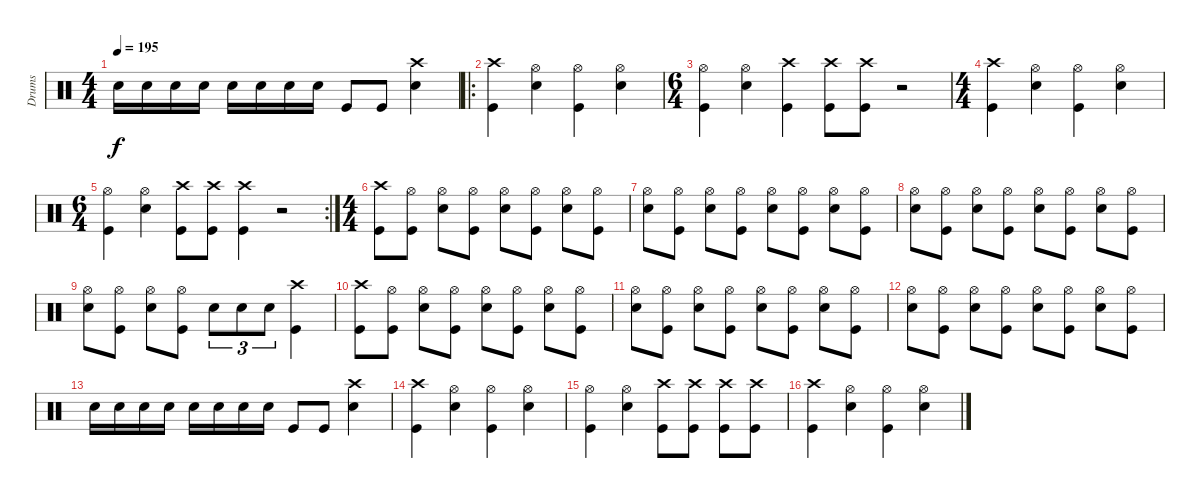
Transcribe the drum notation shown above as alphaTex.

\track ("Drums" "Drums") {instrument percussion}
\staff {score}
\articulation defaults
\ts (4 4)
\tempo 195
\clef neutral
\ks c "Snare (hit) 2".16{dy f} "Snare (hit) 2".16 "Snare (hit) 2".16 "Snare (hit) 2".16 "Snare (hit) 2".16 "Snare (hit) 2".16 "Snare (hit) 2".16 "Snare (hit) 2".16 "Kick (hit)".8 "Kick (hit)".8
("Crash high (hit)" "Snare (hit) 2").4 |
\ro
("Crash high (hit)" "Kick (hit)").4 ("Hi-Hat (open)" "Snare (hit) 2").4 ("Hi-Hat (open)" "Kick (hit)").4 ("Hi-Hat (open)" "Snare (hit) 2").4 |
\ts (6 4)
("Hi-Hat (open)" "Kick (hit)").4 ("Hi-Hat (open)" "Snare (hit) 2").4 ("Crash high (hit)" "Kick (hit)").4 ("Crash high (hit)" "Kick (hit)").8 ("Crash high (hit)" "Kick (hit)").8 r.2 |
\ts (4 4)
("Crash high (hit)" "Kick (hit)").4 ("Hi-Hat (open)" "Snare (hit) 2").4 ("Hi-Hat (open)" "Kick (hit)").4 ("Hi-Hat (open)" "Snare (hit) 2").4 |
\rc 2
\ts (6 4)
("Hi-Hat (open)" "Kick (hit)").4 ("Hi-Hat (open)" "Snare (hit) 2").4 ("Crash high (hit)" "Kick (hit)").8 ("Crash high (hit)" "Kick (hit)").8 ("Crash high (hit)" "Kick (hit)").4 r.2 |
\ts (4 4)
("Crash high (hit)" "Kick (hit)").8 ("Hi-Hat (open)" "Kick (hit)").8 ("Hi-Hat (open)" "Snare (hit) 2").8 ("Hi-Hat (open)" "Kick (hit)").8 ("Hi-Hat (open)" "Snare (hit) 2").8 ("Hi-Hat (open)" "Kick (hit)").8 ("Hi-Hat (open)" "Snare (hit) 2").8 ("Hi-Hat (open)" "Kick (hit)").8 |
("Hi-Hat (open)" "Snare (hit) 2").8 ("Hi-Hat (open)" "Kick (hit)").8 ("Hi-Hat (open)" "Snare (hit) 2").8 ("Hi-Hat (open)" "Kick (hit)").8 ("Hi-Hat (open)" "Snare (hit) 2").8 ("Hi-Hat (open)" "Kick (hit)").8 ("Hi-Hat (open)" "Snare (hit) 2").8 ("Hi-Hat (open)" "Kick (hit)").8 |
("Hi-Hat (open)" "Snare (hit) 2").8 ("Hi-Hat (open)" "Kick (hit)").8 ("Hi-Hat (open)" "Snare (hit) 2").8 ("Hi-Hat (open)" "Kick (hit)").8 ("Hi-Hat (open)" "Snare (hit) 2").8 ("Hi-Hat (open)" "Kick (hit)").8 ("Hi-Hat (open)" "Snare (hit) 2").8 ("Hi-Hat (open)" "Kick (hit)").8 |
("Hi-Hat (open)" "Snare (hit) 2").8 ("Hi-Hat (open)" "Kick (hit)").8 ("Hi-Hat (open)" "Snare (hit) 2").8 ("Hi-Hat (open)" "Kick (hit)").8 "Snare (hit) 2".8{tu (3 2)} "Snare (hit) 2".8{tu (3 2)} "Snare (hit) 2".8{tu (3 2)} ("Crash high (hit)" "Kick (hit)").4 |
("Crash high (hit)" "Kick (hit)").8 ("Hi-Hat (open)" "Kick (hit)").8 ("Hi-Hat (open)" "Snare (hit) 2").8 ("Hi-Hat (open)" "Kick (hit)").8 ("Hi-Hat (open)" "Snare (hit) 2").8 ("Hi-Hat (open)" "Kick (hit)").8 ("Hi-Hat (open)" "Snare (hit) 2").8 ("Hi-Hat (open)" "Kick (hit)").8 |
("Hi-Hat (open)" "Snare (hit) 2").8 ("Hi-Hat (open)" "Kick (hit)").8 ("Hi-Hat (open)" "Snare (hit) 2").8 ("Hi-Hat (open)" "Kick (hit)").8 ("Hi-Hat (open)" "Snare (hit) 2").8 ("Hi-Hat (open)" "Kick (hit)").8 ("Hi-Hat (open)" "Snare (hit) 2").8 ("Hi-Hat (open)" "Kick (hit)").8 |
("Hi-Hat (open)" "Snare (hit) 2").8 ("Hi-Hat (open)" "Kick (hit)").8 ("Hi-Hat (open)" "Snare (hit) 2").8 ("Hi-Hat (open)" "Kick (hit)").8 ("Hi-Hat (open)" "Snare (hit) 2").8 ("Hi-Hat (open)" "Kick (hit)").8 ("Hi-Hat (open)" "Snare (hit) 2").8 ("Hi-Hat (open)" "Kick (hit)").8 |
"Snare (hit) 2".16 "Snare (hit) 2".16 "Snare (hit) 2".16 "Snare (hit) 2".16 "Snare (hit) 2".16 "Snare (hit) 2".16 "Snare (hit) 2".16 "Snare (hit) 2".16 "Kick (hit)".8 "Kick (hit)".8 ("Crash high (hit)" "Snare (hit) 2").4 |
("Crash high (hit)" "Kick (hit)").4 ("Hi-Hat (open)" "Snare (hit) 2").4 ("Hi-Hat (open)" "Kick (hit)").4 ("Hi-Hat (open)" "Snare (hit) 2").4 |
("Hi-Hat (open)" "Kick (hit)").4 ("Hi-Hat (open)" "Snare (hit) 2").4 ("Crash high (hit)" "Kick (hit)").8 ("Crash high (hit)" "Kick (hit)").8 ("Crash high (hit)" "Kick (hit)").8 ("Crash high (hit)" "Kick (hit)").8 |
("Crash high (hit)" "Kick (hit)").4 ("Hi-Hat (open)" "Snare (hit) 2").4 ("Hi-Hat (open)" "Kick (hit)").4 ("Hi-Hat (open)" "Snare (hit) 2").4
